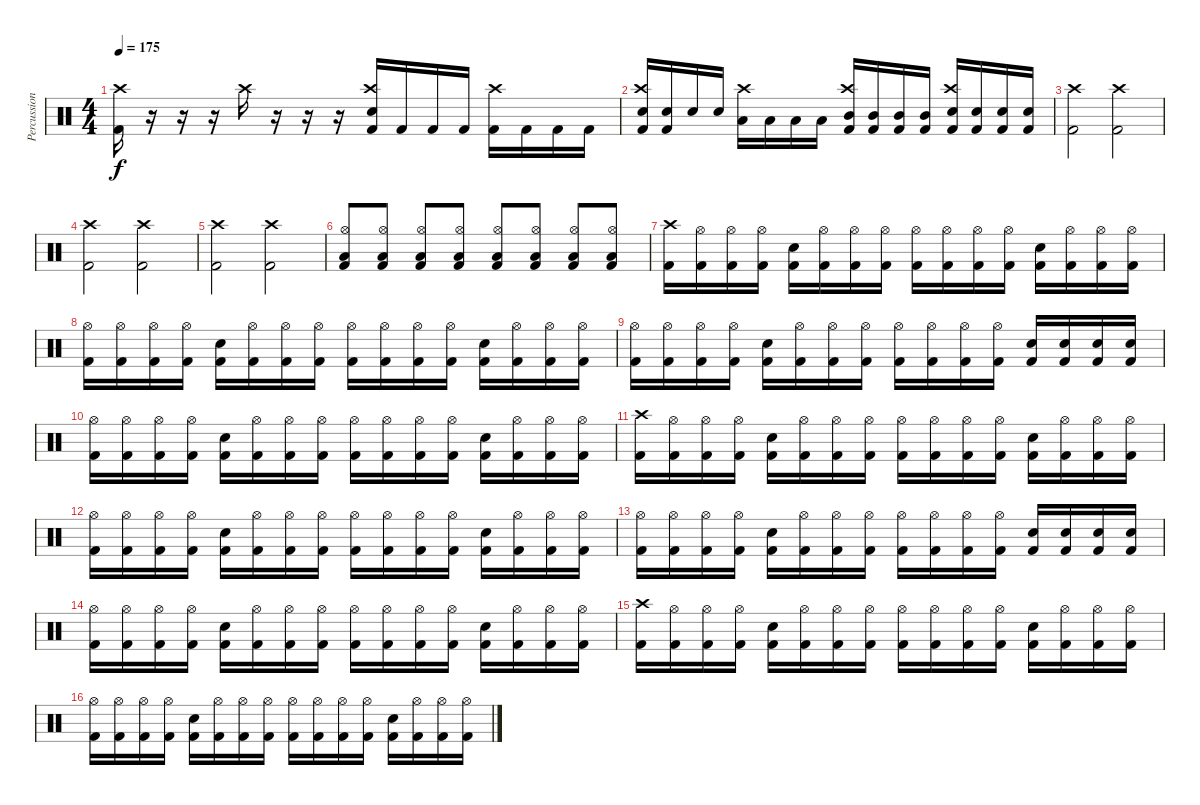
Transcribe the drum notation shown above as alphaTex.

\track ("Percussion" "Percussion") {instrument percussion}
\staff {score}
\articulation defaults
\ts (4 4)
\tempo 175
\clef neutral
\ks c
("Kick (hit) 2" "Crash high (hit)").16{dy f} r.16 r.16 r.16 "Crash high (hit)".16 r.16 r.16 r.16 ("Kick (hit) 2" "Snare (hit) 2" "Crash high (hit)").16 "Kick (hit) 2".16 "Kick (hit) 2".16 "Kick (hit) 2".16 ("Kick (hit) 2" "Crash high (hit)").16 "Kick (hit) 2".16 "Kick (hit) 2".16 "Kick (hit) 2".16 |
("Kick (hit) 2" "Snare (hit) 2" "Crash high (hit)").16 ("Kick (hit) 2" "Snare (hit) 2").16 "Snare (hit) 2".16 "Snare (hit) 2".16 ("Low Tom (hit)" "Crash high (hit)").16 "Low Tom (hit)".16 "Low Tom (hit)".16 "Low Tom (hit)".16 ("Kick (hit) 2" "Mid Tom (hit)" "Crash high (hit)").16 ("Kick (hit) 2" "Mid Tom (hit)").16 ("Kick (hit) 2" "Mid Tom (hit)").16 ("Kick (hit) 2" "Mid Tom (hit)").16 ("Kick (hit) 2" "Snare (hit) 2" "Crash high (hit)").16 ("Kick (hit) 2" "Snare (hit) 2").16 ("Kick (hit) 2" "Snare (hit) 2").16 ("Kick (hit) 2" "Snare (hit) 2").16 |
("Kick (hit) 2" "Crash high (hit)").2 ("Kick (hit) 2" "Crash high (hit)").2 |
("Kick (hit) 2" "Crash high (hit)").2 ("Kick (hit) 2" "Crash high (hit)").2 |
("Kick (hit) 2" "Crash high (hit)").2 ("Kick (hit) 2" "Crash high (hit)").2 |
("Hi-Hat (open)" "Low Floor Tom (hit)" "Kick (hit) 2").8 ("Hi-Hat (open)" "Low Floor Tom (hit)" "Kick (hit) 2").8 ("Hi-Hat (open)" "Low Floor Tom (hit)" "Kick (hit) 2").8 ("Hi-Hat (open)" "Low Floor Tom (hit)" "Kick (hit) 2").8 ("Hi-Hat (open)" "Low Floor Tom (hit)" "Kick (hit) 2").8 ("Hi-Hat (open)" "Low Floor Tom (hit)" "Kick (hit) 2").8 ("Hi-Hat (open)" "Low Floor Tom (hit)" "Kick (hit) 2").8 ("Hi-Hat (open)" "Low Floor Tom (hit)" "Kick (hit) 2").8 |
("Kick (hit) 2" "Crash high (hit)").16 ("Kick (hit) 2" "Hi-Hat (open)").16 ("Kick (hit) 2" "Hi-Hat (open)").16 ("Kick (hit) 2" "Hi-Hat (open)").16 ("Kick (hit) 2" "Snare (hit) 2").16 ("Kick (hit) 2" "Hi-Hat (open)").16 ("Kick (hit) 2" "Hi-Hat (open)").16 ("Kick (hit) 2" "Hi-Hat (open)").16 ("Kick (hit) 2" "Hi-Hat (open)").16 ("Kick (hit) 2" "Hi-Hat (open)").16 ("Kick (hit) 2" "Hi-Hat (open)").16 ("Kick (hit) 2" "Hi-Hat (open)").16 ("Kick (hit) 2" "Snare (hit) 2").16 ("Kick (hit) 2" "Hi-Hat (open)").16 ("Kick (hit) 2" "Hi-Hat (open)").16 ("Kick (hit) 2" "Hi-Hat (open)").16 |
("Kick (hit) 2" "Hi-Hat (open)").16 ("Kick (hit) 2" "Hi-Hat (open)").16 ("Kick (hit) 2" "Hi-Hat (open)").16 ("Kick (hit) 2" "Hi-Hat (open)").16 ("Kick (hit) 2" "Snare (hit) 2").16 ("Kick (hit) 2" "Hi-Hat (open)").16 ("Kick (hit) 2" "Hi-Hat (open)").16 ("Kick (hit) 2" "Hi-Hat (open)").16 ("Kick (hit) 2" "Hi-Hat (open)").16 ("Kick (hit) 2" "Hi-Hat (open)").16 ("Kick (hit) 2" "Hi-Hat (open)").16 ("Kick (hit) 2" "Hi-Hat (open)").16 ("Kick (hit) 2" "Snare (hit) 2").16 ("Kick (hit) 2" "Hi-Hat (open)").16 ("Kick (hit) 2" "Hi-Hat (open)").16 ("Kick (hit) 2" "Hi-Hat (open)").16 |
("Kick (hit) 2" "Hi-Hat (open)").16 ("Kick (hit) 2" "Hi-Hat (open)").16 ("Kick (hit) 2" "Hi-Hat (open)").16 ("Kick (hit) 2" "Hi-Hat (open)").16 ("Kick (hit) 2" "Snare (hit) 2").16 ("Kick (hit) 2" "Hi-Hat (open)").16 ("Kick (hit) 2" "Hi-Hat (open)").16 ("Kick (hit) 2" "Hi-Hat (open)").16 ("Kick (hit) 2" "Hi-Hat (open)").16 ("Kick (hit) 2" "Hi-Hat (open)").16 ("Kick (hit) 2" "Hi-Hat (open)").16 ("Kick (hit) 2" "Hi-Hat (open)").16 ("Kick (hit) 2" "Snare (hit) 2").16 ("Kick (hit) 2" "Snare (hit) 2").16 ("Kick (hit) 2" "Snare (hit) 2").16 ("Kick (hit) 2" "Snare (hit) 2").16 |
("Kick (hit) 2" "Hi-Hat (open)").16 ("Kick (hit) 2" "Hi-Hat (open)").16 ("Kick (hit) 2" "Hi-Hat (open)").16 ("Kick (hit) 2" "Hi-Hat (open)").16 ("Kick (hit) 2" "Snare (hit) 2").16 ("Kick (hit) 2" "Hi-Hat (open)").16 ("Kick (hit) 2" "Hi-Hat (open)").16 ("Kick (hit) 2" "Hi-Hat (open)").16 ("Kick (hit) 2" "Hi-Hat (open)").16 ("Kick (hit) 2" "Hi-Hat (open)").16 ("Kick (hit) 2" "Hi-Hat (open)").16 ("Kick (hit) 2" "Hi-Hat (open)").16 ("Kick (hit) 2" "Snare (hit) 2").16 ("Kick (hit) 2" "Hi-Hat (open)").16 ("Kick (hit) 2" "Hi-Hat (open)").16 ("Kick (hit) 2" "Hi-Hat (open)").16 |
("Kick (hit) 2" "Crash high (hit)").16 ("Kick (hit) 2" "Hi-Hat (open)").16 ("Kick (hit) 2" "Hi-Hat (open)").16 ("Kick (hit) 2" "Hi-Hat (open)").16 ("Kick (hit) 2" "Snare (hit) 2").16 ("Kick (hit) 2" "Hi-Hat (open)").16 ("Kick (hit) 2" "Hi-Hat (open)").16 ("Kick (hit) 2" "Hi-Hat (open)").16 ("Kick (hit) 2" "Hi-Hat (open)").16 ("Kick (hit) 2" "Hi-Hat (open)").16 ("Kick (hit) 2" "Hi-Hat (open)").16 ("Kick (hit) 2" "Hi-Hat (open)").16 ("Kick (hit) 2" "Snare (hit) 2").16 ("Kick (hit) 2" "Hi-Hat (open)").16 ("Kick (hit) 2" "Hi-Hat (open)").16 ("Kick (hit) 2" "Hi-Hat (open)").16 |
("Kick (hit) 2" "Hi-Hat (open)").16 ("Kick (hit) 2" "Hi-Hat (open)").16 ("Kick (hit) 2" "Hi-Hat (open)").16 ("Kick (hit) 2" "Hi-Hat (open)").16 ("Kick (hit) 2" "Snare (hit) 2").16 ("Kick (hit) 2" "Hi-Hat (open)").16 ("Kick (hit) 2" "Hi-Hat (open)").16 ("Kick (hit) 2" "Hi-Hat (open)").16 ("Kick (hit) 2" "Hi-Hat (open)").16 ("Kick (hit) 2" "Hi-Hat (open)").16 ("Kick (hit) 2" "Hi-Hat (open)").16 ("Kick (hit) 2" "Hi-Hat (open)").16 ("Kick (hit) 2" "Snare (hit) 2").16 ("Kick (hit) 2" "Hi-Hat (open)").16 ("Kick (hit) 2" "Hi-Hat (open)").16 ("Kick (hit) 2" "Hi-Hat (open)").16 |
("Kick (hit) 2" "Hi-Hat (open)").16 ("Kick (hit) 2" "Hi-Hat (open)").16 ("Kick (hit) 2" "Hi-Hat (open)").16 ("Kick (hit) 2" "Hi-Hat (open)").16 ("Kick (hit) 2" "Snare (hit) 2").16 ("Kick (hit) 2" "Hi-Hat (open)").16 ("Kick (hit) 2" "Hi-Hat (open)").16 ("Kick (hit) 2" "Hi-Hat (open)").16 ("Kick (hit) 2" "Hi-Hat (open)").16 ("Kick (hit) 2" "Hi-Hat (open)").16 ("Kick (hit) 2" "Hi-Hat (open)").16 ("Kick (hit) 2" "Hi-Hat (open)").16 ("Kick (hit) 2" "Snare (hit) 2").16 ("Kick (hit) 2" "Snare (hit) 2").16 ("Kick (hit) 2" "Snare (hit) 2").16 ("Kick (hit) 2" "Snare (hit) 2").16 |
("Kick (hit) 2" "Hi-Hat (open)").16 ("Kick (hit) 2" "Hi-Hat (open)").16 ("Kick (hit) 2" "Hi-Hat (open)").16 ("Kick (hit) 2" "Hi-Hat (open)").16 ("Kick (hit) 2" "Snare (hit) 2").16 ("Kick (hit) 2" "Hi-Hat (open)").16 ("Kick (hit) 2" "Hi-Hat (open)").16 ("Kick (hit) 2" "Hi-Hat (open)").16 ("Kick (hit) 2" "Hi-Hat (open)").16 ("Kick (hit) 2" "Hi-Hat (open)").16 ("Kick (hit) 2" "Hi-Hat (open)").16 ("Kick (hit) 2" "Hi-Hat (open)").16 ("Kick (hit) 2" "Snare (hit) 2").16 ("Kick (hit) 2" "Hi-Hat (open)").16 ("Kick (hit) 2" "Hi-Hat (open)").16 ("Kick (hit) 2" "Hi-Hat (open)").16 |
("Kick (hit) 2" "Crash high (hit)").16 ("Kick (hit) 2" "Hi-Hat (open)").16 ("Kick (hit) 2" "Hi-Hat (open)").16 ("Kick (hit) 2" "Hi-Hat (open)").16 ("Kick (hit) 2" "Snare (hit) 2").16 ("Kick (hit) 2" "Hi-Hat (open)").16 ("Kick (hit) 2" "Hi-Hat (open)").16 ("Kick (hit) 2" "Hi-Hat (open)").16 ("Kick (hit) 2" "Hi-Hat (open)").16 ("Kick (hit) 2" "Hi-Hat (open)").16 ("Kick (hit) 2" "Hi-Hat (open)").16 ("Kick (hit) 2" "Hi-Hat (open)").16 ("Kick (hit) 2" "Snare (hit) 2").16 ("Kick (hit) 2" "Hi-Hat (open)").16 ("Kick (hit) 2" "Hi-Hat (open)").16 ("Kick (hit) 2" "Hi-Hat (open)").16 |
("Kick (hit) 2" "Hi-Hat (open)").16 ("Kick (hit) 2" "Hi-Hat (open)").16 ("Kick (hit) 2" "Hi-Hat (open)").16 ("Kick (hit) 2" "Hi-Hat (open)").16 ("Kick (hit) 2" "Snare (hit) 2").16 ("Kick (hit) 2" "Hi-Hat (open)").16 ("Kick (hit) 2" "Hi-Hat (open)").16 ("Kick (hit) 2" "Hi-Hat (open)").16 ("Kick (hit) 2" "Hi-Hat (open)").16 ("Kick (hit) 2" "Hi-Hat (open)").16 ("Kick (hit) 2" "Hi-Hat (open)").16 ("Kick (hit) 2" "Hi-Hat (open)").16 ("Kick (hit) 2" "Snare (hit) 2").16 ("Kick (hit) 2" "Hi-Hat (open)").16 ("Kick (hit) 2" "Hi-Hat (open)").16 ("Kick (hit) 2" "Hi-Hat (open)").16
